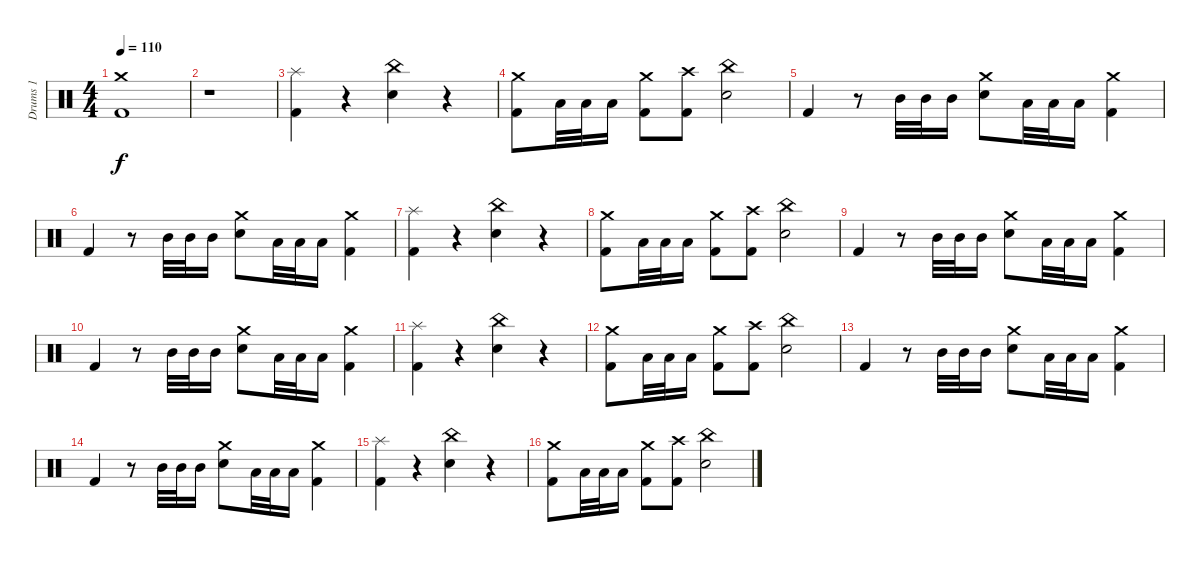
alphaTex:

\track ("Drums 1" "Drums 1") {instrument percussion}
\staff {score}
\articulation defaults
\ts (4 4)
\tempo 95
\tempo 110
\clef neutral
\ks c
("Crash medium (hit)" "Kick (hit) 2").1{dy f} |
r.1 |
("Splash (hit)" "Kick (hit) 2").4 r.4 ("China (hit)" "Snare (hit) 2").4 r.4 |
("Crash medium (hit)" "Kick (hit) 2").8 "Low Tom (hit)".32 "Low Tom (hit)".32 "Low Tom (hit)".16 ("Crash medium (hit)" "Kick (hit) 2").8 ("Crash high (hit)" "Kick (hit) 2").8 ("China (hit)" "Snare (hit) 2").2 |
"Kick (hit) 2".4 r.8 "Mid Tom (hit)".32 "Mid Tom (hit)".32 "Mid Tom (hit)".16 ("Crash medium (hit)" "Snare (hit) 2").8 "Low Tom (hit)".32 "Low Tom (hit)".32 "Low Tom (hit)".16 ("Crash medium (hit)" "Kick (hit) 2").4 |
"Kick (hit) 2".4 r.8 "Mid Tom (hit)".32 "Mid Tom (hit)".32 "Mid Tom (hit)".16 ("Crash medium (hit)" "Snare (hit) 2").8 "Low Tom (hit)".32 "Low Tom (hit)".32 "Low Tom (hit)".16 ("Crash medium (hit)" "Kick (hit) 2").4 |
("Splash (hit)" "Kick (hit) 2").4 r.4 ("China (hit)" "Snare (hit) 2").4 r.4 |
("Crash medium (hit)" "Kick (hit) 2").8 "Low Tom (hit)".32 "Low Tom (hit)".32 "Low Tom (hit)".16 ("Crash medium (hit)" "Kick (hit) 2").8 ("Crash high (hit)" "Kick (hit) 2").8 ("China (hit)" "Snare (hit) 2").2 |
"Kick (hit) 2".4 r.8 "Mid Tom (hit)".32 "Mid Tom (hit)".32 "Mid Tom (hit)".16 ("Crash medium (hit)" "Snare (hit) 2").8 "Low Tom (hit)".32 "Low Tom (hit)".32 "Low Tom (hit)".16 ("Crash medium (hit)" "Kick (hit) 2").4 |
"Kick (hit) 2".4 r.8 "Mid Tom (hit)".32 "Mid Tom (hit)".32 "Mid Tom (hit)".16 ("Crash medium (hit)" "Snare (hit) 2").8 "Low Tom (hit)".32 "Low Tom (hit)".32 "Low Tom (hit)".16 ("Crash medium (hit)" "Kick (hit) 2").4 |
("Splash (hit)" "Kick (hit) 2").4 r.4 ("China (hit)" "Snare (hit) 2").4 r.4 |
("Crash medium (hit)" "Kick (hit) 2").8 "Low Tom (hit)".32 "Low Tom (hit)".32 "Low Tom (hit)".16 ("Crash medium (hit)" "Kick (hit) 2").8 ("Crash high (hit)" "Kick (hit) 2").8 ("China (hit)" "Snare (hit) 2").2 |
"Kick (hit) 2".4 r.8 "Mid Tom (hit)".32 "Mid Tom (hit)".32 "Mid Tom (hit)".16 ("Crash medium (hit)" "Snare (hit) 2").8 "Low Tom (hit)".32 "Low Tom (hit)".32 "Low Tom (hit)".16 ("Crash medium (hit)" "Kick (hit) 2").4 |
"Kick (hit) 2".4 r.8 "Mid Tom (hit)".32 "Mid Tom (hit)".32 "Mid Tom (hit)".16 ("Crash medium (hit)" "Snare (hit) 2").8 "Low Tom (hit)".32 "Low Tom (hit)".32 "Low Tom (hit)".16 ("Crash medium (hit)" "Kick (hit) 2").4 |
("Splash (hit)" "Kick (hit) 2").4 r.4 ("China (hit)" "Snare (hit) 2").4 r.4 |
("Crash medium (hit)" "Kick (hit) 2").8 "Low Tom (hit)".32 "Low Tom (hit)".32 "Low Tom (hit)".16 ("Crash medium (hit)" "Kick (hit) 2").8 ("Crash high (hit)" "Kick (hit) 2").8 ("China (hit)" "Snare (hit) 2").2
